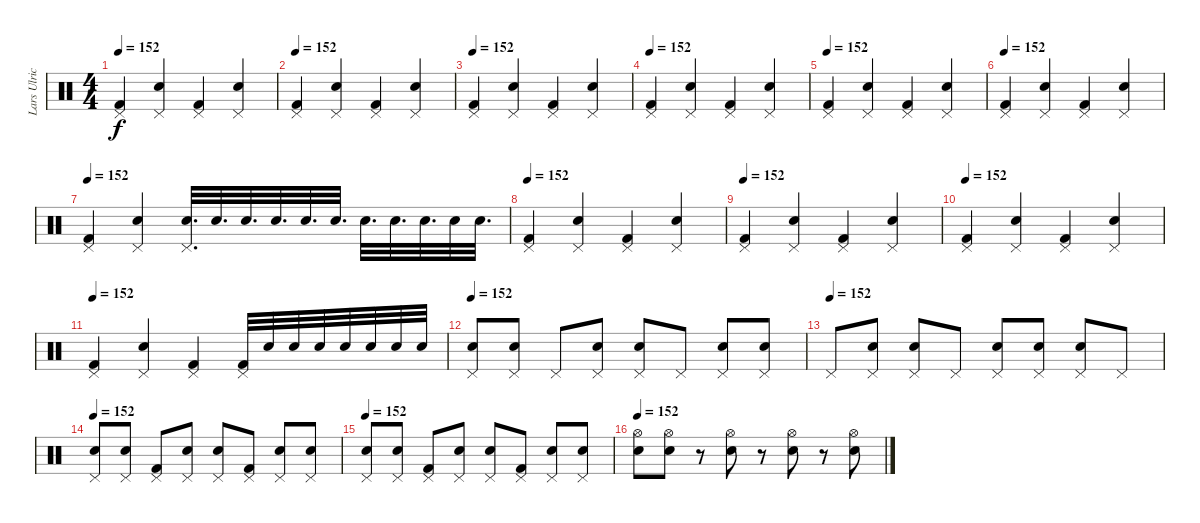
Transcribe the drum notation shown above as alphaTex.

\track ("Lars Ulrich" "Lars Ulric") {instrument percussion}
\staff {score}
\articulation defaults
\ts (4 4)
\tempo 152
\clef neutral
\ks c
("Pedal Hi-Hat (hit)" "Kick (hit) 2").4{dy f} ("Pedal Hi-Hat (hit)" "Snare (hit) 2").4 ("Pedal Hi-Hat (hit)" "Kick (hit) 2").4 ("Pedal Hi-Hat (hit)" "Snare (hit) 2").4 |
\tempo 152
("Pedal Hi-Hat (hit)" "Kick (hit) 2").4 ("Pedal Hi-Hat (hit)" "Snare (hit) 2").4 ("Pedal Hi-Hat (hit)" "Kick (hit) 2").4 ("Pedal Hi-Hat (hit)" "Snare (hit) 2").4 |
\tempo 152
("Pedal Hi-Hat (hit)" "Kick (hit) 2").4 ("Pedal Hi-Hat (hit)" "Snare (hit) 2").4 ("Pedal Hi-Hat (hit)" "Kick (hit) 2").4 ("Pedal Hi-Hat (hit)" "Snare (hit) 2").4 |
\tempo 152
("Pedal Hi-Hat (hit)" "Kick (hit) 2").4 ("Pedal Hi-Hat (hit)" "Snare (hit) 2").4 ("Pedal Hi-Hat (hit)" "Kick (hit) 2").4 ("Pedal Hi-Hat (hit)" "Snare (hit) 2").4 |
\tempo 152
("Pedal Hi-Hat (hit)" "Kick (hit) 2").4 ("Pedal Hi-Hat (hit)" "Snare (hit) 2").4 ("Pedal Hi-Hat (hit)" "Kick (hit) 2").4 ("Pedal Hi-Hat (hit)" "Snare (hit) 2").4 |
\tempo 152
("Pedal Hi-Hat (hit)" "Kick (hit) 2").4 ("Pedal Hi-Hat (hit)" "Snare (hit) 2").4 ("Pedal Hi-Hat (hit)" "Kick (hit) 2").4 ("Pedal Hi-Hat (hit)" "Snare (hit) 2").4 |
\tempo 152
("Pedal Hi-Hat (hit)" "Kick (hit) 2").4 ("Pedal Hi-Hat (hit)" "Snare (hit) 2").4 ("Pedal Hi-Hat (hit)" "Snare (hit) 2").32{d} "Snare (hit) 2".32{d} "Snare (hit) 2".32{d} "Snare (hit) 2".32{d} "Snare (hit) 2".32{d} "Snare (hit) 2".32{d} "Snare (hit) 2".32{d} "Snare (hit) 2".32{d} "Snare (hit) 2".32{d} "Snare (hit) 2".32 "Snare (hit) 2".32{d} |
\tempo 152
("Pedal Hi-Hat (hit)" "Kick (hit) 2").4 ("Pedal Hi-Hat (hit)" "Snare (hit) 2").4 ("Pedal Hi-Hat (hit)" "Kick (hit) 2").4 ("Pedal Hi-Hat (hit)" "Snare (hit) 2").4 |
\tempo 152
("Pedal Hi-Hat (hit)" "Kick (hit) 2").4 ("Pedal Hi-Hat (hit)" "Snare (hit) 2").4 ("Pedal Hi-Hat (hit)" "Kick (hit) 2").4 ("Pedal Hi-Hat (hit)" "Snare (hit) 2").4 |
\tempo 152
("Pedal Hi-Hat (hit)" "Kick (hit) 2").4 ("Pedal Hi-Hat (hit)" "Snare (hit) 2").4 ("Pedal Hi-Hat (hit)" "Kick (hit) 2").4 ("Pedal Hi-Hat (hit)" "Snare (hit) 2").4 |
\tempo 152
("Pedal Hi-Hat (hit)" "Kick (hit) 2").4 ("Pedal Hi-Hat (hit)" "Snare (hit) 2").4 ("Pedal Hi-Hat (hit)" "Kick (hit) 2").4 ("Pedal Hi-Hat (hit)" "Kick (hit) 2").32 "Snare (hit) 2".32 "Snare (hit) 2".32 "Snare (hit) 2".32 "Snare (hit) 2".32 "Snare (hit) 2".32 "Snare (hit) 2".32 "Snare (hit) 2".32 |
\tempo 152
("Pedal Hi-Hat (hit)" "Snare (hit) 2").8 ("Pedal Hi-Hat (hit)" "Snare (hit) 2").8 "Pedal Hi-Hat (hit)".8 ("Pedal Hi-Hat (hit)" "Snare (hit) 2").8 ("Pedal Hi-Hat (hit)" "Snare (hit) 2").8 "Pedal Hi-Hat (hit)".8 ("Pedal Hi-Hat (hit)" "Snare (hit) 2").8 ("Pedal Hi-Hat (hit)" "Snare (hit) 2").8 |
\tempo (152)
"Pedal Hi-Hat (hit)".8 ("Pedal Hi-Hat (hit)" "Snare (hit) 2").8 ("Pedal Hi-Hat (hit)" "Snare (hit) 2").8 "Pedal Hi-Hat (hit)".8 ("Pedal Hi-Hat (hit)" "Snare (hit) 2").8 ("Pedal Hi-Hat (hit)" "Snare (hit) 2").8 ("Pedal Hi-Hat (hit)" "Snare (hit) 2").8 "Pedal Hi-Hat (hit)".8 |
\tempo 152
("Pedal Hi-Hat (hit)" "Snare (hit) 2").8 ("Pedal Hi-Hat (hit)" "Snare (hit) 2").8 ("Pedal Hi-Hat (hit)" "Kick (hit) 2").8 ("Pedal Hi-Hat (hit)" "Snare (hit) 2").8 ("Pedal Hi-Hat (hit)" "Snare (hit) 2").8 ("Pedal Hi-Hat (hit)" "Kick (hit) 2").8 ("Pedal Hi-Hat (hit)" "Snare (hit) 2").8 ("Pedal Hi-Hat (hit)" "Snare (hit) 2").8 |
\tempo 152
("Pedal Hi-Hat (hit)" "Snare (hit) 2").8 ("Pedal Hi-Hat (hit)" "Snare (hit) 2").8 ("Pedal Hi-Hat (hit)" "Kick (hit) 2").8 ("Pedal Hi-Hat (hit)" "Snare (hit) 2").8 ("Pedal Hi-Hat (hit)" "Snare (hit) 2").8 ("Pedal Hi-Hat (hit)" "Kick (hit) 2").8 ("Pedal Hi-Hat (hit)" "Snare (hit) 2").8 ("Pedal Hi-Hat (hit)" "Snare (hit) 2").8 |
\tempo 152
("Snare (hit) 2" "Hi-Hat (open)").8 ("Snare (hit) 2" "Hi-Hat (open)").8 r.8 ("Snare (hit) 2" "Hi-Hat (open)").8 r.8 ("Snare (hit) 2" "Hi-Hat (open)").8 r.8 ("Snare (hit) 2" "Hi-Hat (open)").8
